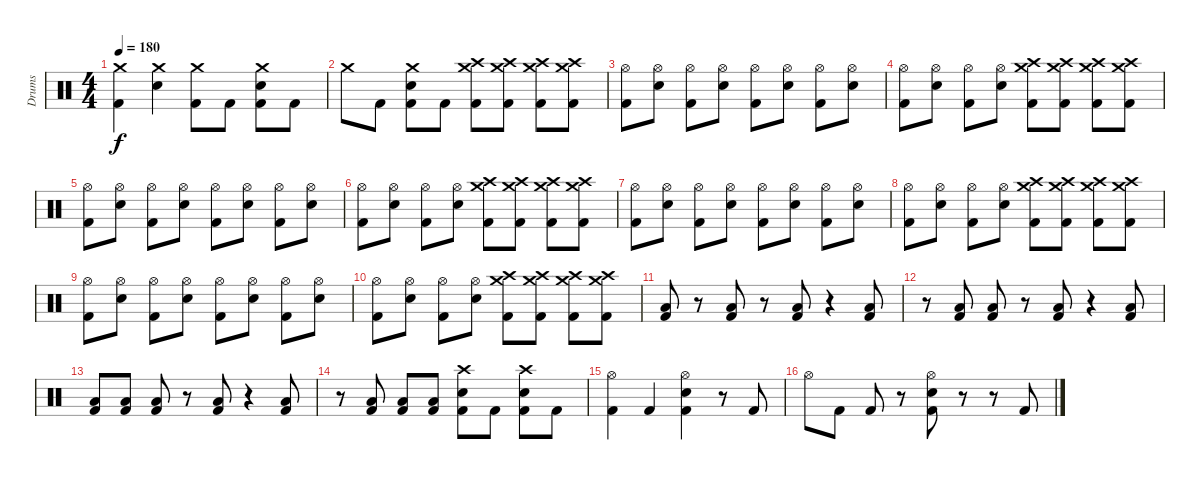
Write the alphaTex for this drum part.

\track ("Drums" "Drums") {instrument percussion}
\staff {score}
\articulation defaults
\ts (4 4)
\tempo 180
\clef neutral
\ks c
("Crash medium (hit)" "Kick (hit) 2").4{dy f} ("Crash medium (hit)" "Snare (hit) 2").4 ("Crash medium (hit)" "Kick (hit) 2").8 "Kick (hit) 2".8 ("Crash medium (hit)" "Snare (hit) 2" "Kick (hit) 2").8 "Kick (hit) 2".8 |
"Crash medium (hit)".8 "Kick (hit) 2".8 ("Crash medium (hit)" "Snare (hit) 2" "Kick (hit) 2").8 "Kick (hit) 2".8 ("Crash medium (hit)" "Crash high (hit)" "Kick (hit) 2").8 ("Crash medium (hit)" "Crash high (hit)" "Kick (hit) 2").8 ("Crash medium (hit)" "Crash high (hit)" "Kick (hit) 2").8 ("Crash medium (hit)" "Crash high (hit)" "Kick (hit) 2").8 |
("Hi-Hat (open)" "Kick (hit) 2").8 ("Hi-Hat (open)" "Snare (hit) 2").8 ("Hi-Hat (open)" "Kick (hit) 2").8 ("Hi-Hat (open)" "Snare (hit) 2").8 ("Hi-Hat (open)" "Kick (hit) 2").8 ("Hi-Hat (open)" "Snare (hit) 2").8 ("Hi-Hat (open)" "Kick (hit) 2").8 ("Hi-Hat (open)" "Snare (hit) 2").8 |
("Hi-Hat (open)" "Kick (hit) 2").8 ("Hi-Hat (open)" "Snare (hit) 2").8 ("Hi-Hat (open)" "Kick (hit) 2").8 ("Hi-Hat (open)" "Snare (hit) 2").8 ("Crash high (hit)" "Crash medium (hit)" "Kick (hit) 2").8 ("Crash high (hit)" "Crash medium (hit)" "Kick (hit) 2").8 ("Crash high (hit)" "Crash medium (hit)" "Kick (hit) 2").8 ("Crash high (hit)" "Crash medium (hit)" "Kick (hit) 2").8 |
("Hi-Hat (open)" "Kick (hit) 2").8 ("Hi-Hat (open)" "Snare (hit) 2").8 ("Hi-Hat (open)" "Kick (hit) 2").8 ("Hi-Hat (open)" "Snare (hit) 2").8 ("Hi-Hat (open)" "Kick (hit) 2").8 ("Hi-Hat (open)" "Snare (hit) 2").8 ("Hi-Hat (open)" "Kick (hit) 2").8 ("Hi-Hat (open)" "Snare (hit) 2").8 |
("Hi-Hat (open)" "Kick (hit) 2").8 ("Hi-Hat (open)" "Snare (hit) 2").8 ("Hi-Hat (open)" "Kick (hit) 2").8 ("Hi-Hat (open)" "Snare (hit) 2").8 ("Crash high (hit)" "Crash medium (hit)" "Kick (hit) 2").8 ("Crash high (hit)" "Crash medium (hit)" "Kick (hit) 2").8 ("Crash high (hit)" "Crash medium (hit)" "Kick (hit) 2").8 ("Crash high (hit)" "Crash medium (hit)" "Kick (hit) 2").8 |
("Hi-Hat (open)" "Kick (hit) 2").8 ("Hi-Hat (open)" "Snare (hit) 2").8 ("Hi-Hat (open)" "Kick (hit) 2").8 ("Hi-Hat (open)" "Snare (hit) 2").8 ("Hi-Hat (open)" "Kick (hit) 2").8 ("Hi-Hat (open)" "Snare (hit) 2").8 ("Hi-Hat (open)" "Kick (hit) 2").8 ("Hi-Hat (open)" "Snare (hit) 2").8 |
("Hi-Hat (open)" "Kick (hit) 2").8 ("Hi-Hat (open)" "Snare (hit) 2").8 ("Hi-Hat (open)" "Kick (hit) 2").8 ("Hi-Hat (open)" "Snare (hit) 2").8 ("Crash high (hit)" "Crash medium (hit)" "Kick (hit) 2").8 ("Crash high (hit)" "Crash medium (hit)" "Kick (hit) 2").8 ("Crash high (hit)" "Crash medium (hit)" "Kick (hit) 2").8 ("Crash high (hit)" "Crash medium (hit)" "Kick (hit) 2").8 |
("Hi-Hat (open)" "Kick (hit) 2").8 ("Hi-Hat (open)" "Snare (hit) 2").8 ("Hi-Hat (open)" "Kick (hit) 2").8 ("Hi-Hat (open)" "Snare (hit) 2").8 ("Hi-Hat (open)" "Kick (hit) 2").8 ("Hi-Hat (open)" "Snare (hit) 2").8 ("Hi-Hat (open)" "Kick (hit) 2").8 ("Hi-Hat (open)" "Snare (hit) 2").8 |
("Hi-Hat (open)" "Kick (hit) 2").8 ("Hi-Hat (open)" "Snare (hit) 2").8 ("Hi-Hat (open)" "Kick (hit) 2").8 ("Hi-Hat (open)" "Snare (hit) 2").8 ("Crash high (hit)" "Crash medium (hit)" "Kick (hit) 2").8 ("Crash high (hit)" "Crash medium (hit)" "Kick (hit) 2").8 ("Crash high (hit)" "Crash medium (hit)" "Kick (hit) 2").8 ("Crash high (hit)" "Crash medium (hit)" "Kick (hit) 2").8 |
("Low Tom (hit)" "Kick (hit) 2").8 r.8 ("Low Tom (hit)" "Kick (hit) 2").8 r.8 ("Low Tom (hit)" "Kick (hit) 2").8 r.4 ("Low Tom (hit)" "Kick (hit) 2").8 |
r.8 ("Low Tom (hit)" "Kick (hit) 2").8 ("Low Tom (hit)" "Kick (hit) 2").8 r.8 ("Low Tom (hit)" "Kick (hit) 2").8 r.4 ("Low Tom (hit)" "Kick (hit) 2").8 |
("Low Tom (hit)" "Kick (hit) 2").8 ("Low Tom (hit)" "Kick (hit) 2").8 ("Low Tom (hit)" "Kick (hit) 2").8 r.8 ("Low Tom (hit)" "Kick (hit) 2").8 r.4 ("Low Tom (hit)" "Kick (hit) 2").8 |
r.8 ("Low Tom (hit)" "Kick (hit) 2").8 ("Low Tom (hit)" "Kick (hit) 2").8 ("Low Tom (hit)" "Kick (hit) 2").8 ("Crash high (hit)" "Snare (hit) 2" "Kick (hit) 2").8 "Kick (hit) 2".8 ("Crash high (hit)" "Snare (hit) 2" "Kick (hit) 2").8 "Kick (hit) 2".8 |
("Hi-Hat (open)" "Kick (hit) 2").4 "Kick (hit) 2".4 ("Hi-Hat (open)" "Snare (hit) 2" "Kick (hit) 2").4 r.8 "Kick (hit) 2".8 |
"Hi-Hat (open)".8 "Kick (hit) 2".8 "Kick (hit) 2".8 r.8 ("Hi-Hat (open)" "Snare (hit) 2" "Kick (hit) 2").8 r.8 r.8 "Kick (hit) 2".8
